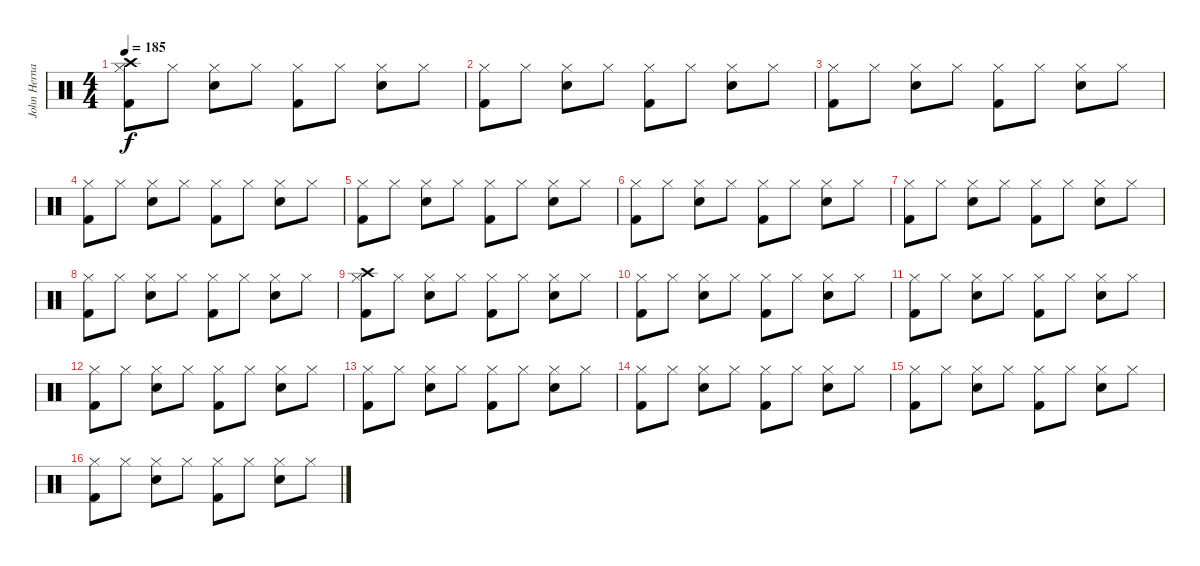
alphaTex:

\track ("John Hernandez" "John Herna") {instrument percussion}
\staff {score}
\articulation defaults
\ts (4 4)
\tempo 185
\clef neutral
\ks c
("Crash high (hit)" "Hi-Hat (closed)" "Kick (hit) 2").8{dy f} "Hi-Hat (closed)".8 ("Hi-Hat (closed)" "Snare (hit) 2").8 "Hi-Hat (closed)".8 ("Hi-Hat (closed)" "Kick (hit) 2").8 "Hi-Hat (closed)".8 ("Hi-Hat (closed)" "Snare (hit) 2").8 "Hi-Hat (closed)".8 |
("Hi-Hat (closed)" "Kick (hit) 2").8 "Hi-Hat (closed)".8 ("Hi-Hat (closed)" "Snare (hit) 2").8 "Hi-Hat (closed)".8 ("Hi-Hat (closed)" "Kick (hit) 2").8 "Hi-Hat (closed)".8 ("Hi-Hat (closed)" "Snare (hit) 2").8 "Hi-Hat (closed)".8 |
("Hi-Hat (closed)" "Kick (hit) 2").8 "Hi-Hat (closed)".8 ("Hi-Hat (closed)" "Snare (hit) 2").8 "Hi-Hat (closed)".8 ("Hi-Hat (closed)" "Kick (hit) 2").8 "Hi-Hat (closed)".8 ("Hi-Hat (closed)" "Snare (hit) 2").8 "Hi-Hat (closed)".8 |
("Hi-Hat (closed)" "Kick (hit) 2").8 "Hi-Hat (closed)".8 ("Hi-Hat (closed)" "Snare (hit) 2").8 "Hi-Hat (closed)".8 ("Hi-Hat (closed)" "Kick (hit) 2").8 "Hi-Hat (closed)".8 ("Hi-Hat (closed)" "Snare (hit) 2").8 "Hi-Hat (closed)".8 |
("Hi-Hat (closed)" "Kick (hit) 2").8 "Hi-Hat (closed)".8 ("Hi-Hat (closed)" "Snare (hit) 2").8 "Hi-Hat (closed)".8 ("Hi-Hat (closed)" "Kick (hit) 2").8 "Hi-Hat (closed)".8 ("Hi-Hat (closed)" "Snare (hit) 2").8 "Hi-Hat (closed)".8 |
("Hi-Hat (closed)" "Kick (hit) 2").8 "Hi-Hat (closed)".8 ("Hi-Hat (closed)" "Snare (hit) 2").8 "Hi-Hat (closed)".8 ("Hi-Hat (closed)" "Kick (hit) 2").8 "Hi-Hat (closed)".8 ("Hi-Hat (closed)" "Snare (hit) 2").8 "Hi-Hat (closed)".8 |
("Hi-Hat (closed)" "Kick (hit) 2").8 "Hi-Hat (closed)".8 ("Hi-Hat (closed)" "Snare (hit) 2").8 "Hi-Hat (closed)".8 ("Hi-Hat (closed)" "Kick (hit) 2").8 "Hi-Hat (closed)".8 ("Hi-Hat (closed)" "Snare (hit) 2").8 "Hi-Hat (closed)".8 |
("Hi-Hat (closed)" "Kick (hit) 2").8 "Hi-Hat (closed)".8 ("Hi-Hat (closed)" "Snare (hit) 2").8 "Hi-Hat (closed)".8 ("Hi-Hat (closed)" "Kick (hit) 2").8 "Hi-Hat (closed)".8 ("Hi-Hat (closed)" "Snare (hit) 2").8 "Hi-Hat (closed)".8 |
("Crash high (hit)" "Hi-Hat (closed)" "Kick (hit) 2").8 "Hi-Hat (closed)".8 ("Hi-Hat (closed)" "Snare (hit) 2").8 "Hi-Hat (closed)".8 ("Hi-Hat (closed)" "Kick (hit) 2").8 "Hi-Hat (closed)".8 ("Hi-Hat (closed)" "Snare (hit) 2").8 "Hi-Hat (closed)".8 |
("Hi-Hat (closed)" "Kick (hit) 2").8 "Hi-Hat (closed)".8 ("Hi-Hat (closed)" "Snare (hit) 2").8 "Hi-Hat (closed)".8 ("Hi-Hat (closed)" "Kick (hit) 2").8 "Hi-Hat (closed)".8 ("Hi-Hat (closed)" "Snare (hit) 2").8 "Hi-Hat (closed)".8 |
("Hi-Hat (closed)" "Kick (hit) 2").8 "Hi-Hat (closed)".8 ("Hi-Hat (closed)" "Snare (hit) 2").8 "Hi-Hat (closed)".8 ("Hi-Hat (closed)" "Kick (hit) 2").8 "Hi-Hat (closed)".8 ("Hi-Hat (closed)" "Snare (hit) 2").8 "Hi-Hat (closed)".8 |
("Hi-Hat (closed)" "Kick (hit) 2").8 "Hi-Hat (closed)".8 ("Hi-Hat (closed)" "Snare (hit) 2").8 "Hi-Hat (closed)".8 ("Hi-Hat (closed)" "Kick (hit) 2").8 "Hi-Hat (closed)".8 ("Hi-Hat (closed)" "Snare (hit) 2").8 "Hi-Hat (closed)".8 |
("Hi-Hat (closed)" "Kick (hit) 2").8 "Hi-Hat (closed)".8 ("Hi-Hat (closed)" "Snare (hit) 2").8 "Hi-Hat (closed)".8 ("Hi-Hat (closed)" "Kick (hit) 2").8 "Hi-Hat (closed)".8 ("Hi-Hat (closed)" "Snare (hit) 2").8 "Hi-Hat (closed)".8 |
("Hi-Hat (closed)" "Kick (hit) 2").8 "Hi-Hat (closed)".8 ("Hi-Hat (closed)" "Snare (hit) 2").8 "Hi-Hat (closed)".8 ("Hi-Hat (closed)" "Kick (hit) 2").8 "Hi-Hat (closed)".8 ("Hi-Hat (closed)" "Snare (hit) 2").8 "Hi-Hat (closed)".8 |
("Hi-Hat (closed)" "Kick (hit) 2").8 "Hi-Hat (closed)".8 ("Hi-Hat (closed)" "Snare (hit) 2").8 "Hi-Hat (closed)".8 ("Hi-Hat (closed)" "Kick (hit) 2").8 "Hi-Hat (closed)".8 ("Hi-Hat (closed)" "Snare (hit) 2").8 "Hi-Hat (closed)".8 |
("Hi-Hat (closed)" "Kick (hit) 2").8 "Hi-Hat (closed)".8 ("Hi-Hat (closed)" "Snare (hit) 2").8 "Hi-Hat (closed)".8 ("Hi-Hat (closed)" "Kick (hit) 2").8 "Hi-Hat (closed)".8 ("Hi-Hat (closed)" "Snare (hit) 2").8 "Hi-Hat (closed)".8
